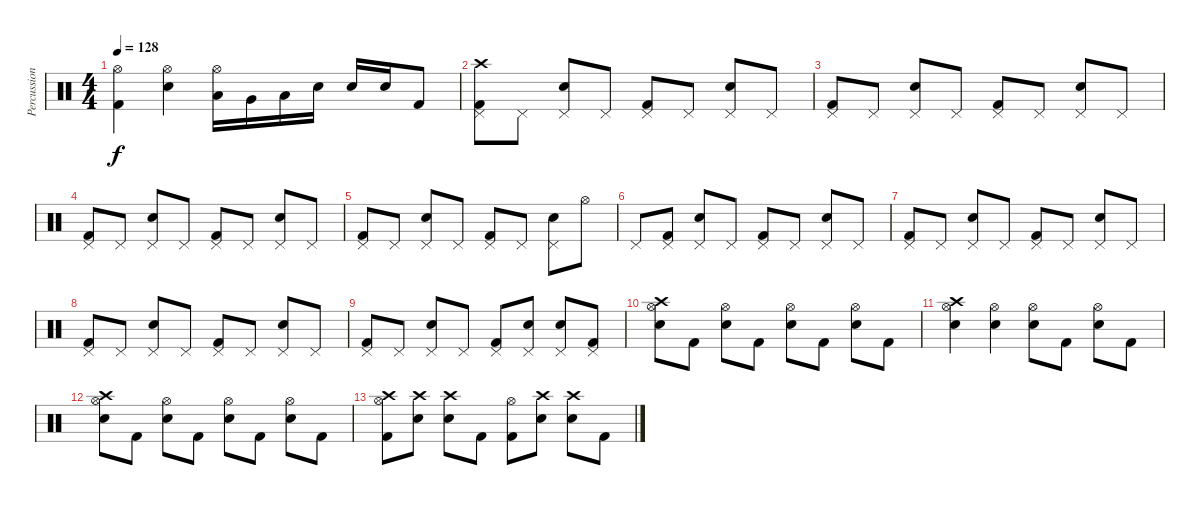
\track ("Percussion" "Percussion") {instrument percussion}
\staff {score}
\articulation defaults
\ts (4 4)
\tempo 128
\clef neutral
\ks c
("Kick (hit) 2" "Hi-Hat (open)").4{dy f} ("Snare (hit) 2" "Hi-Hat (open)").4 ("Low Tom (hit)" "Hi-Hat (open)").16 "Very Low Tom (hit)".16 "Low Floor Tom (hit)".16 "Snare (hit) 2".16 "Snare (hit) 2".16 "Snare (hit) 2".16 "Kick (hit) 2".8 |
("Kick (hit) 2" "Pedal Hi-Hat (hit)" "Crash high (hit)").8 "Pedal Hi-Hat (hit)".8 ("Snare (hit) 2" "Pedal Hi-Hat (hit)").8 "Pedal Hi-Hat (hit)".8 ("Kick (hit) 2" "Pedal Hi-Hat (hit)").8 "Pedal Hi-Hat (hit)".8 ("Snare (hit) 2" "Pedal Hi-Hat (hit)").8 "Pedal Hi-Hat (hit)".8 |
("Kick (hit) 2" "Pedal Hi-Hat (hit)").8 "Pedal Hi-Hat (hit)".8 ("Snare (hit) 2" "Pedal Hi-Hat (hit)").8 "Pedal Hi-Hat (hit)".8 ("Kick (hit) 2" "Pedal Hi-Hat (hit)").8 "Pedal Hi-Hat (hit)".8 ("Snare (hit) 2" "Pedal Hi-Hat (hit)").8 "Pedal Hi-Hat (hit)".8 |
("Kick (hit) 2" "Pedal Hi-Hat (hit)").8 "Pedal Hi-Hat (hit)".8 ("Snare (hit) 2" "Pedal Hi-Hat (hit)").8 "Pedal Hi-Hat (hit)".8 ("Kick (hit) 2" "Pedal Hi-Hat (hit)").8 "Pedal Hi-Hat (hit)".8 ("Snare (hit) 2" "Pedal Hi-Hat (hit)").8 "Pedal Hi-Hat (hit)".8 |
("Kick (hit) 2" "Pedal Hi-Hat (hit)").8 "Pedal Hi-Hat (hit)".8 ("Snare (hit) 2" "Pedal Hi-Hat (hit)").8 "Pedal Hi-Hat (hit)".8 ("Kick (hit) 2" "Pedal Hi-Hat (hit)").8 "Pedal Hi-Hat (hit)".8 ("Snare (hit) 2" "Pedal Hi-Hat (hit)").8 "Hi-Hat (open)".8 |
"Pedal Hi-Hat (hit)".8 ("Kick (hit) 2" "Pedal Hi-Hat (hit)").8 ("Snare (hit) 2" "Pedal Hi-Hat (hit)").8 "Pedal Hi-Hat (hit)".8 ("Kick (hit) 2" "Pedal Hi-Hat (hit)").8 "Pedal Hi-Hat (hit)".8 ("Snare (hit) 2" "Pedal Hi-Hat (hit)").8 "Pedal Hi-Hat (hit)".8 |
("Kick (hit) 2" "Pedal Hi-Hat (hit)").8 "Pedal Hi-Hat (hit)".8 ("Snare (hit) 2" "Pedal Hi-Hat (hit)").8 "Pedal Hi-Hat (hit)".8 ("Kick (hit) 2" "Pedal Hi-Hat (hit)").8 "Pedal Hi-Hat (hit)".8 ("Snare (hit) 2" "Pedal Hi-Hat (hit)").8 "Pedal Hi-Hat (hit)".8 |
("Kick (hit) 2" "Pedal Hi-Hat (hit)").8 "Pedal Hi-Hat (hit)".8 ("Snare (hit) 2" "Pedal Hi-Hat (hit)").8 "Pedal Hi-Hat (hit)".8 ("Kick (hit) 2" "Pedal Hi-Hat (hit)").8 "Pedal Hi-Hat (hit)".8 ("Snare (hit) 2" "Pedal Hi-Hat (hit)").8 "Pedal Hi-Hat (hit)".8 |
("Kick (hit) 2" "Pedal Hi-Hat (hit)").8 "Pedal Hi-Hat (hit)".8 ("Snare (hit) 2" "Pedal Hi-Hat (hit)").8 "Pedal Hi-Hat (hit)".8 ("Kick (hit) 2" "Pedal Hi-Hat (hit)").8 ("Snare (hit) 2" "Pedal Hi-Hat (hit)").8 ("Snare (hit) 2" "Pedal Hi-Hat (hit)").8 ("Kick (hit) 2" "Pedal Hi-Hat (hit)").8 |
("Snare (hit) 2" "Hi-Hat (open)" "Crash high (hit)").8 "Kick (hit) 2".8 ("Snare (hit) 2" "Hi-Hat (open)").8 "Kick (hit) 2".8 ("Snare (hit) 2" "Hi-Hat (open)").8 "Kick (hit) 2".8 ("Snare (hit) 2" "Hi-Hat (open)").8 "Kick (hit) 2".8 |
("Snare (hit) 2" "Hi-Hat (open)" "Crash high (hit)").4 ("Snare (hit) 2" "Hi-Hat (open)").4 ("Snare (hit) 2" "Hi-Hat (open)").8 "Kick (hit) 2".8 ("Snare (hit) 2" "Hi-Hat (open)").8 "Kick (hit) 2".8 |
("Snare (hit) 2" "Hi-Hat (open)" "Crash high (hit)").8 "Kick (hit) 2".8 ("Snare (hit) 2" "Hi-Hat (open)").8 "Kick (hit) 2".8 ("Snare (hit) 2" "Hi-Hat (open)").8 "Kick (hit) 2".8 ("Snare (hit) 2" "Hi-Hat (open)").8 "Kick (hit) 2".8 |
("Kick (hit) 2" "Hi-Hat (open)" "Crash high (hit)").8 ("Snare (hit) 2" "Crash high (hit)").8 ("Snare (hit) 2" "Crash high (hit)").8 "Kick (hit) 2".8 ("Kick (hit) 2" "Hi-Hat (open)").8 ("Snare (hit) 2" "Crash high (hit)").8 ("Snare (hit) 2" "Crash high (hit)").8 "Kick (hit) 2".8
